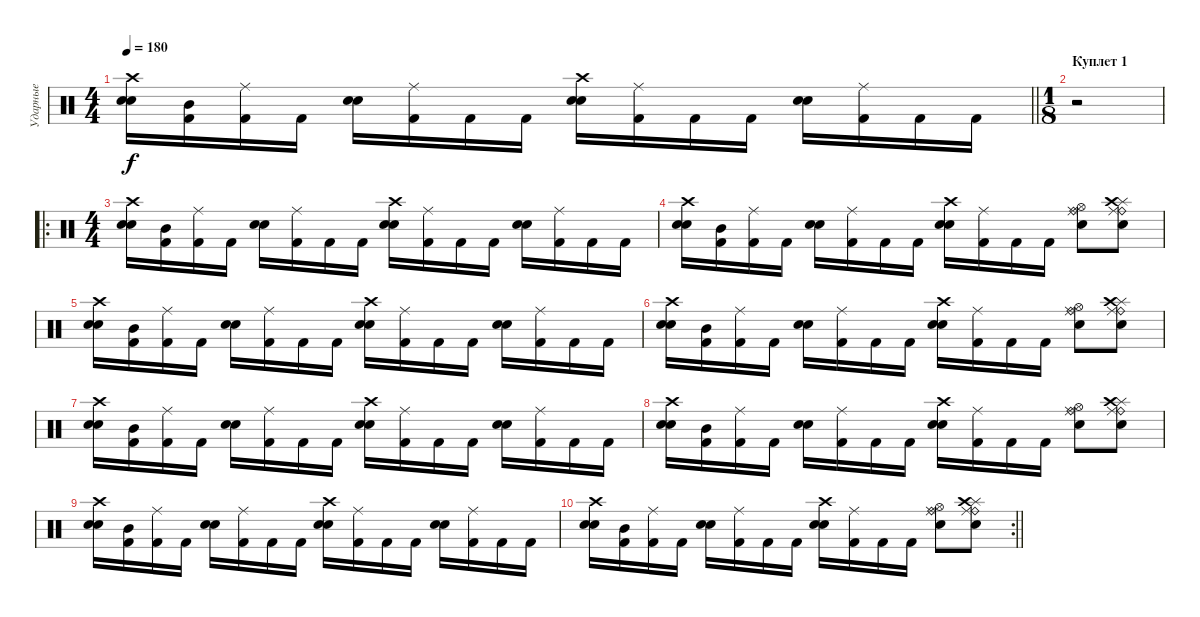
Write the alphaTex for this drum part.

\track ("Ударные" "Ударные") {instrument percussion}
\staff {score}
\articulation defaults
\ts (4 4)
\tempo 180
\clef neutral
\barLineRight lightlight
\ks c
("Snare (hit) 2" "Snare (hit) 2" "Crash high (hit)").16{dy f} ("Kick (hit) 2" "Mid Tom (hit)").16 ("Kick (hit) 2" "Ride (middle)").16 "Kick (hit) 2".16 ("Snare (hit) 2" "Snare (hit) 2").16 ("Kick (hit) 2" "Ride (middle)").16 "Kick (hit) 2".16 "Kick (hit) 2".16 ("Snare (hit) 2" "Snare (hit) 2" "Crash high (hit)").16 ("Kick (hit) 2" "Ride (middle)").16 "Kick (hit) 2".16 "Kick (hit) 2".16 ("Snare (hit) 2" "Snare (hit) 2").16 ("Kick (hit) 2" "Ride (middle)").16 "Kick (hit) 2".16 "Kick (hit) 2".16 |
\ts (1 8)
\section ("" "Куплет 1")
r.2 |
\ro
\ts (4 4)
("Snare (hit) 2" "Snare (hit) 2" "Crash high (hit)").16 ("Kick (hit) 2" "Mid Tom (hit)").16 ("Kick (hit) 2" "Ride (middle)").16 "Kick (hit) 2".16 ("Snare (hit) 2" "Snare (hit) 2").16 ("Kick (hit) 2" "Ride (middle)").16 "Kick (hit) 2".16 "Kick (hit) 2".16 ("Snare (hit) 2" "Snare (hit) 2" "Crash high (hit)").16 ("Kick (hit) 2" "Ride (middle)").16 "Kick (hit) 2".16 "Kick (hit) 2".16 ("Snare (hit) 2" "Snare (hit) 2").16 ("Kick (hit) 2" "Ride (middle)").16 "Kick (hit) 2".16 "Kick (hit) 2".16 |
("Snare (hit) 2" "Snare (hit) 2" "Crash high (hit)").16 ("Kick (hit) 2" "Mid Tom (hit)").16 ("Kick (hit) 2" "Ride (middle)").16 "Kick (hit) 2".16 ("Snare (hit) 2" "Snare (hit) 2").16 ("Kick (hit) 2" "Ride (middle)").16 "Kick (hit) 2".16 "Kick (hit) 2".16 ("Snare (hit) 2" "Snare (hit) 2" "Crash high (hit)").16 ("Kick (hit) 2" "Ride (middle)").16 "Kick (hit) 2".16 "Kick (hit) 2".16 ("Electric Snare (hit)" "Hi-Hat (open)" "Ride (middle)" "Ride (bell)").8 ("Splash (hit)" "Electric Snare (hit)" "Crash high (hit)" "Ride (bell)" "Ride (middle)").8 |
("Snare (hit) 2" "Snare (hit) 2" "Crash high (hit)").16 ("Kick (hit) 2" "Mid Tom (hit)").16 ("Kick (hit) 2" "Ride (middle)").16 "Kick (hit) 2".16 ("Snare (hit) 2" "Snare (hit) 2").16 ("Kick (hit) 2" "Ride (middle)").16 "Kick (hit) 2".16 "Kick (hit) 2".16 ("Snare (hit) 2" "Snare (hit) 2" "Crash high (hit)").16 ("Kick (hit) 2" "Ride (middle)").16 "Kick (hit) 2".16 "Kick (hit) 2".16 ("Snare (hit) 2" "Snare (hit) 2").16 ("Kick (hit) 2" "Ride (middle)").16 "Kick (hit) 2".16 "Kick (hit) 2".16 |
("Snare (hit) 2" "Snare (hit) 2" "Crash high (hit)").16 ("Kick (hit) 2" "Mid Tom (hit)").16 ("Kick (hit) 2" "Ride (middle)").16 "Kick (hit) 2".16 ("Snare (hit) 2" "Snare (hit) 2").16 ("Kick (hit) 2" "Ride (middle)").16 "Kick (hit) 2".16 "Kick (hit) 2".16 ("Snare (hit) 2" "Snare (hit) 2" "Crash high (hit)").16 ("Kick (hit) 2" "Ride (middle)").16 "Kick (hit) 2".16 "Kick (hit) 2".16 ("Electric Snare (hit)" "Hi-Hat (open)" "Ride (middle)" "Ride (bell)").8 ("Splash (hit)" "Electric Snare (hit)" "Crash high (hit)" "Ride (bell)" "Ride (middle)").8 |
("Snare (hit) 2" "Snare (hit) 2" "Crash high (hit)").16 ("Kick (hit) 2" "Mid Tom (hit)").16 ("Kick (hit) 2" "Ride (middle)").16 "Kick (hit) 2".16 ("Snare (hit) 2" "Snare (hit) 2").16 ("Kick (hit) 2" "Ride (middle)").16 "Kick (hit) 2".16 "Kick (hit) 2".16 ("Snare (hit) 2" "Snare (hit) 2" "Crash high (hit)").16 ("Kick (hit) 2" "Ride (middle)").16 "Kick (hit) 2".16 "Kick (hit) 2".16 ("Snare (hit) 2" "Snare (hit) 2").16 ("Kick (hit) 2" "Ride (middle)").16 "Kick (hit) 2".16 "Kick (hit) 2".16 |
("Snare (hit) 2" "Snare (hit) 2" "Crash high (hit)").16 ("Kick (hit) 2" "Mid Tom (hit)").16 ("Kick (hit) 2" "Ride (middle)").16 "Kick (hit) 2".16 ("Snare (hit) 2" "Snare (hit) 2").16 ("Kick (hit) 2" "Ride (middle)").16 "Kick (hit) 2".16 "Kick (hit) 2".16 ("Snare (hit) 2" "Snare (hit) 2" "Crash high (hit)").16 ("Kick (hit) 2" "Ride (middle)").16 "Kick (hit) 2".16 "Kick (hit) 2".16 ("Electric Snare (hit)" "Hi-Hat (open)" "Ride (middle)" "Ride (bell)").8 ("Splash (hit)" "Electric Snare (hit)" "Crash high (hit)" "Ride (bell)" "Ride (middle)").8 |
("Snare (hit) 2" "Snare (hit) 2" "Crash high (hit)").16 ("Kick (hit) 2" "Mid Tom (hit)").16 ("Kick (hit) 2" "Ride (middle)").16 "Kick (hit) 2".16 ("Snare (hit) 2" "Snare (hit) 2").16 ("Kick (hit) 2" "Ride (middle)").16 "Kick (hit) 2".16 "Kick (hit) 2".16 ("Snare (hit) 2" "Snare (hit) 2" "Crash high (hit)").16 ("Kick (hit) 2" "Ride (middle)").16 "Kick (hit) 2".16 "Kick (hit) 2".16 ("Snare (hit) 2" "Snare (hit) 2").16 ("Kick (hit) 2" "Ride (middle)").16 "Kick (hit) 2".16 "Kick (hit) 2".16 |
\rc 2
\barLineRight lightlight
("Snare (hit) 2" "Snare (hit) 2" "Crash high (hit)").16 ("Kick (hit) 2" "Mid Tom (hit)").16 ("Kick (hit) 2" "Ride (middle)").16 "Kick (hit) 2".16 ("Snare (hit) 2" "Snare (hit) 2").16 ("Kick (hit) 2" "Ride (middle)").16 "Kick (hit) 2".16 "Kick (hit) 2".16 ("Snare (hit) 2" "Snare (hit) 2" "Crash high (hit)").16 ("Kick (hit) 2" "Ride (middle)").16 "Kick (hit) 2".16 "Kick (hit) 2".16 ("Electric Snare (hit)" "Hi-Hat (open)" "Ride (middle)" "Ride (bell)").8 ("Splash (hit)" "Electric Snare (hit)" "Crash high (hit)" "Ride (bell)" "Ride (middle)").8
